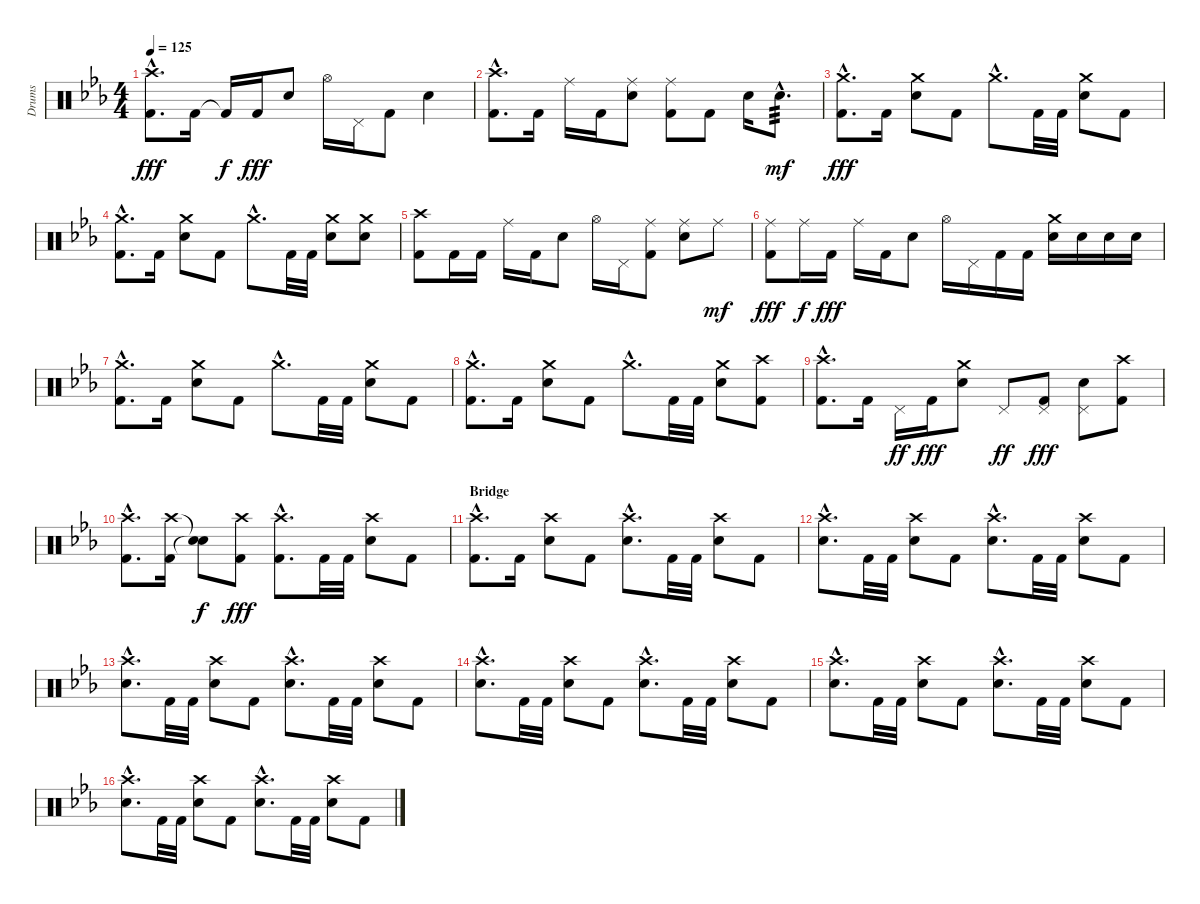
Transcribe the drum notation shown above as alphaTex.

\track ("Drums" "Drums") {instrument percussion}
\staff {score}
\articulation defaults
\ts (4 4)
\tempo 125
\clef neutral
\ks cminor
("Crash high (hit)"{hac} "Kick (hit) 2"{hac}).8{d dy fff} "Kick (hit) 2".16 "Kick (hit) 2"{t}.16{dy f} "Kick (hit) 2".16{dy fff} "Snare (hit) 2".8 "Hi-Hat (open)".16 "Pedal Hi-Hat (hit)".16 "Kick (hit) 2".8 "Snare (hit) 2".4 |
("Crash high (hit)"{hac} "Kick (hit) 2"{hac}).8{d} "Kick (hit) 2".16 "Ride (middle)".16 "Kick (hit) 2".16 ("Ride (middle)" "Snare (hit) 2").8 ("Ride (middle)" "Kick (hit) 2").8 "Kick (hit) 2".8 "Snare (hit) 2".16 "Snare (hit) 2"{hac}.8{d tp 3 dy mf} |
("Crash medium (hit)"{hac} "Kick (hit) 2"{hac}).8{d dy fff} "Kick (hit) 2".16 ("Crash medium (hit)" "Snare (hit) 2").8 "Kick (hit) 2".8 "Crash medium (hit)"{hac}.8{d} "Kick (hit) 2".32 "Kick (hit) 2".32 ("Crash medium (hit)" "Snare (hit) 2").8 "Kick (hit) 2".8 |
("Crash medium (hit)"{hac} "Kick (hit) 2"{hac}).8{d} "Kick (hit) 2".16 ("Crash medium (hit)" "Snare (hit) 2").8 "Kick (hit) 2".8 "Crash medium (hit)"{hac}.8{d} "Kick (hit) 2".32 "Kick (hit) 2".32 ("Crash medium (hit)" "Snare (hit) 2").8 ("Crash medium (hit)" "Snare (hit) 2").8 |
("Crash high (hit)" "Kick (hit) 2").8 "Kick (hit) 2".16 "Kick (hit) 2".16 "Ride (middle)".16 "Kick (hit) 2".16 "Snare (hit) 2".8 "Hi-Hat (open)".16 "Pedal Hi-Hat (hit)".16 ("Ride (middle)" "Kick (hit) 2").8 ("Ride (middle)" "Snare (hit) 2").8 "Ride (middle)".8{dy mf} |
("Ride (middle)" "Kick (hit) 2").8{dy fff} "Ride (middle)".16{dy f} "Kick (hit) 2".16{dy fff} "Ride (middle)".16 "Kick (hit) 2".16 "Snare (hit) 2".8 "Hi-Hat (open)".16 "Pedal Hi-Hat (hit)".16 "Kick (hit) 2".16 "Kick (hit) 2".16 ("Crash medium (hit)" "Snare (hit) 2").16 "Snare (hit) 2".16 "Snare (hit) 2".16 "Snare (hit) 2".16 |
("Crash medium (hit)"{hac} "Kick (hit) 2"{hac}).8{d} "Kick (hit) 2".16 ("Crash medium (hit)" "Snare (hit) 2").8 "Kick (hit) 2".8 "Crash medium (hit)"{hac}.8{d} "Kick (hit) 2".32 "Kick (hit) 2".32 ("Crash medium (hit)" "Snare (hit) 2").8 "Kick (hit) 2".8 |
("Crash medium (hit)"{hac} "Kick (hit) 2"{hac}).8{d} "Kick (hit) 2".16 ("Crash medium (hit)" "Snare (hit) 2").8 "Kick (hit) 2".8 "Crash medium (hit)"{hac}.8{d} "Kick (hit) 2".32 "Kick (hit) 2".32 ("Crash medium (hit)" "Snare (hit) 2").8 ("Crash high (hit)" "Kick (hit) 2").8 |
("Crash high (hit)"{hac} "Kick (hit) 2"{hac}).8{d} "Kick (hit) 2".16 "Pedal Hi-Hat (hit)".16{dy ff} "Kick (hit) 2".16{dy fff} ("Crash medium (hit)" "Snare (hit) 2").8 "Pedal Hi-Hat (hit)".8{dy ff} ("Pedal Hi-Hat (hit)" "Kick (hit) 2").8{dy fff} ("Pedal Hi-Hat (hit)" "Snare (hit) 2").8 ("Crash high (hit)" "Kick (hit) 2").8 |
("Crash high (hit)"{hac} "Kick (hit) 2"{hac}).8{d} ("Crash high (hit)" "Kick (hit) 2").16 ("Snare (hit)"{t} "Snare (hit)"{t}).8{dy f} ("Crash high (hit)" "Kick (hit) 2").8{dy fff} ("Crash high (hit)"{hac} "Kick (hit) 2"{hac}).8{d} "Kick (hit) 2".32 "Kick (hit) 2".32 ("Crash high (hit)" "Snare (hit) 2").8 "Kick (hit) 2".8 |
\section ("" "Bridge")
("Crash high (hit)"{hac} "Kick (hit) 2"{hac}).8{d} "Kick (hit) 2".16 ("Crash high (hit)" "Snare (hit) 2").8 "Kick (hit) 2".8 ("Crash high (hit)"{hac} "Snare (hit) 2"{hac}).8{d} "Kick (hit) 2".32 "Kick (hit) 2".32 ("Crash high (hit)" "Snare (hit) 2").8 "Kick (hit) 2".8 |
("Crash high (hit)"{hac} "Snare (hit) 2"{hac}).8{d} "Kick (hit) 2".32 "Kick (hit) 2".32 ("Crash high (hit)" "Snare (hit) 2").8 "Kick (hit) 2".8 ("Crash high (hit)"{hac} "Snare (hit) 2"{hac}).8{d} "Kick (hit) 2".32 "Kick (hit) 2".32 ("Crash high (hit)" "Snare (hit) 2").8 "Kick (hit) 2".8 |
("Crash high (hit)"{hac} "Snare (hit) 2"{hac}).8{d} "Kick (hit) 2".32 "Kick (hit) 2".32 ("Crash high (hit)" "Snare (hit) 2").8 "Kick (hit) 2".8 ("Crash high (hit)"{hac} "Snare (hit) 2"{hac}).8{d} "Kick (hit) 2".32 "Kick (hit) 2".32 ("Crash high (hit)" "Snare (hit) 2").8 "Kick (hit) 2".8 |
("Crash high (hit)"{hac} "Snare (hit) 2"{hac}).8{d} "Kick (hit) 2".32 "Kick (hit) 2".32 ("Crash high (hit)" "Snare (hit) 2").8 "Kick (hit) 2".8 ("Crash high (hit)"{hac} "Snare (hit) 2"{hac}).8{d} "Kick (hit) 2".32 "Kick (hit) 2".32 ("Crash high (hit)" "Snare (hit) 2").8 "Kick (hit) 2".8 |
("Crash high (hit)"{hac} "Snare (hit) 2"{hac}).8{d} "Kick (hit) 2".32 "Kick (hit) 2".32 ("Crash high (hit)" "Snare (hit) 2").8 "Kick (hit) 2".8 ("Crash high (hit)"{hac} "Snare (hit) 2"{hac}).8{d} "Kick (hit) 2".32 "Kick (hit) 2".32 ("Crash high (hit)" "Snare (hit) 2").8 "Kick (hit) 2".8 |
("Crash high (hit)"{hac} "Snare (hit) 2"{hac}).8{d} "Kick (hit) 2".32 "Kick (hit) 2".32 ("Crash high (hit)" "Snare (hit) 2").8 "Kick (hit) 2".8 ("Crash high (hit)"{hac} "Snare (hit) 2"{hac}).8{d} "Kick (hit) 2".32 "Kick (hit) 2".32 ("Crash high (hit)" "Snare (hit) 2").8 "Kick (hit) 2".8
